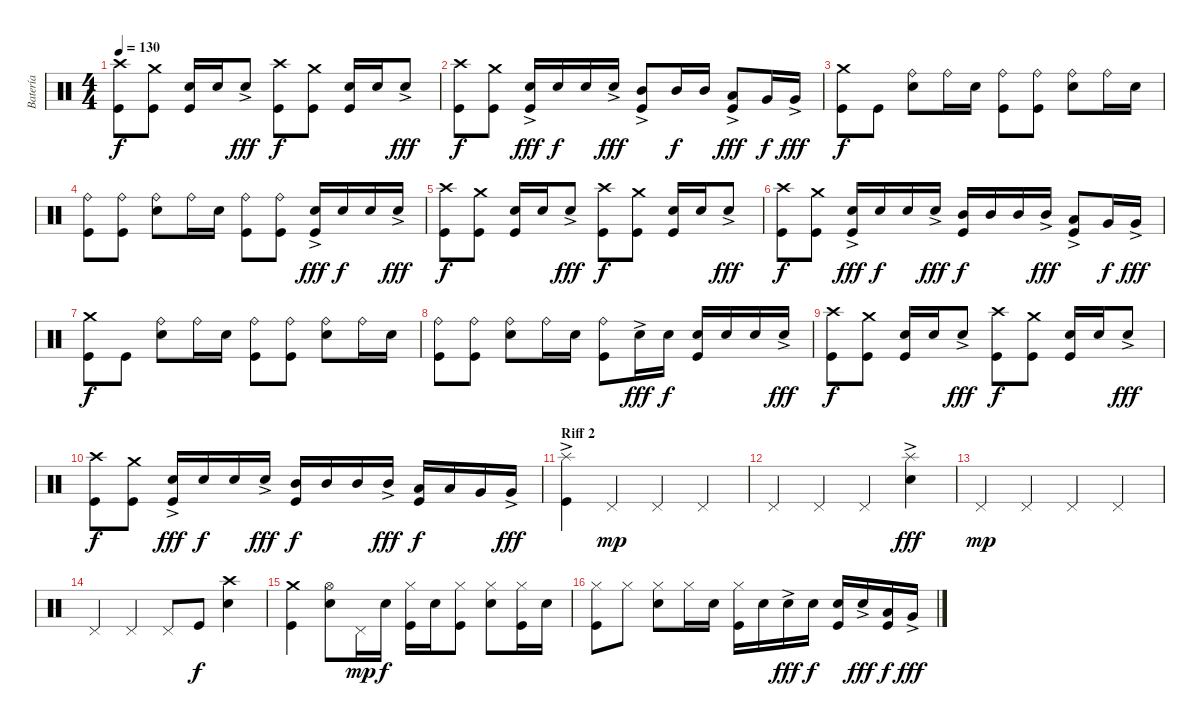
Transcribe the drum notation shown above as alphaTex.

\track ("Batería" "Batería") {instrument percussion}
\staff {score}
\articulation defaults
\ts (4 4)
\tempo 130
\clef neutral
\ks c
("Kick (hit)" "Crash high (hit)").8{dy f} ("Kick (hit)" "Crash medium (hit)").8 ("Kick (hit)" "Electric Snare (hit)").16 "Electric Snare (hit)".16 "Electric Snare (hit)"{ac}.8{dy fff} ("Kick (hit)" "Crash high (hit)").8{dy f} ("Kick (hit)" "Crash medium (hit)").8 ("Kick (hit)" "Electric Snare (hit)").16 "Electric Snare (hit)".16 "Electric Snare (hit)"{ac}.8{dy fff} |
("Kick (hit)" "Crash high (hit)").8{dy f} ("Kick (hit)" "Crash medium (hit)").8 ("Kick (hit)" "Electric Snare (hit)"{ac}).16{dy fff} "Electric Snare (hit)".16{dy f} "Electric Snare (hit)".16 "Electric Snare (hit)"{ac}.16{dy fff} ("Kick (hit)" "Mid Tom (hit)"{ac}).8 "Mid Tom (hit)".16{dy f} "Mid Tom (hit)".16 ("Kick (hit)" "Low Tom (hit)"{ac}).8{dy fff} "Very Low Tom (hit)".16{dy f} "Very Low Tom (hit)"{ac}.16{dy fff} |
("Kick (hit)" "Crash medium (hit)").8{dy f} "Kick (hit)".8 ("Electric Snare (hit)" "Ride (bell)").8 "Ride (bell)".16 "Electric Snare (hit)".16 ("Kick (hit)" "Ride (bell)").8 ("Kick (hit)" "Ride (bell)").8 ("Electric Snare (hit)" "Ride (bell)").8 "Ride (bell)".16 "Electric Snare (hit)".16 |
("Kick (hit)" "Ride (bell)").8 ("Kick (hit)" "Ride (bell)").8 ("Electric Snare (hit)" "Ride (bell)").8 "Ride (bell)".16 "Electric Snare (hit)".16 ("Kick (hit)" "Ride (bell)").8 ("Kick (hit)" "Ride (bell)").8 ("Kick (hit)" "Electric Snare (hit)"{ac}).16{dy fff} "Electric Snare (hit)".16{dy f} "Electric Snare (hit)".16 "Electric Snare (hit)"{ac}.16{dy fff} |
("Kick (hit)" "Crash high (hit)").8{dy f} ("Kick (hit)" "Crash medium (hit)").8 ("Kick (hit)" "Electric Snare (hit)").16 "Electric Snare (hit)".16 "Electric Snare (hit)"{ac}.8{dy fff} ("Kick (hit)" "Crash high (hit)").8{dy f} ("Kick (hit)" "Crash medium (hit)").8 ("Kick (hit)" "Electric Snare (hit)").16 "Electric Snare (hit)".16 "Electric Snare (hit)"{ac}.8{dy fff} |
("Kick (hit)" "Crash high (hit)").8{dy f} ("Kick (hit)" "Crash medium (hit)").8 ("Kick (hit)" "Electric Snare (hit)"{ac}).16{dy fff} "Electric Snare (hit)".16{dy f} "Electric Snare (hit)".16 "Electric Snare (hit)"{ac}.16{dy fff} ("Kick (hit)" "Mid Tom (hit)").16{dy f} "Mid Tom (hit)".16 "Mid Tom (hit)".16 "Mid Tom (hit)"{ac}.16{dy fff} ("Kick (hit)" "Low Tom (hit)"{ac}).8 "Very Low Tom (hit)".16{dy f} "Very Low Tom (hit)"{ac}.16{dy fff} |
("Kick (hit)" "Crash medium (hit)").8{dy f} "Kick (hit)".8 ("Electric Snare (hit)" "Ride (bell)").8 "Ride (bell)".16 "Electric Snare (hit)".16 ("Kick (hit)" "Ride (bell)").8 ("Kick (hit)" "Ride (bell)").8 ("Electric Snare (hit)" "Ride (bell)").8 "Ride (bell)".16 "Electric Snare (hit)".16 |
("Kick (hit)" "Ride (bell)").8 ("Kick (hit)" "Ride (bell)").8 ("Electric Snare (hit)" "Ride (bell)").8 "Ride (bell)".16 "Electric Snare (hit)".16 ("Kick (hit)" "Ride (bell)").8 "Electric Snare (hit)"{ac}.16{dy fff} "Electric Snare (hit)".16{dy f} ("Kick (hit)" "Electric Snare (hit)").16 "Electric Snare (hit)".16 "Electric Snare (hit)".16 "Electric Snare (hit)"{ac}.16{dy fff} |
("Kick (hit)" "Crash high (hit)").8{dy f} ("Kick (hit)" "Crash medium (hit)").8 ("Kick (hit)" "Electric Snare (hit)").16 "Electric Snare (hit)".16 "Electric Snare (hit)"{ac}.8{dy fff} ("Kick (hit)" "Crash high (hit)").8{dy f} ("Kick (hit)" "Crash medium (hit)").8 ("Kick (hit)" "Electric Snare (hit)").16 "Electric Snare (hit)".16 "Electric Snare (hit)"{ac}.8{dy fff} |
("Kick (hit)" "Crash high (hit)").8{dy f} ("Kick (hit)" "Crash medium (hit)").8 ("Kick (hit)" "Electric Snare (hit)"{ac}).16{dy fff} "Electric Snare (hit)".16{dy f} "Electric Snare (hit)".16 "Electric Snare (hit)"{ac}.16{dy fff} ("Kick (hit)" "Mid Tom (hit)").16{dy f} "Mid Tom (hit)".16 "Mid Tom (hit)".16 "Mid Tom (hit)"{ac}.16{dy fff} ("Kick (hit)" "Low Tom (hit)").16{dy f} "Low Tom (hit)".16 "Very Low Tom (hit)".16 "Very Low Tom (hit)"{ac}.16{dy fff} |
\section ("" "Riff 2")
("Kick (hit)" "Splash (hit)"{ac}).4 "Pedal Hi-Hat (hit)".4{dy mp} "Pedal Hi-Hat (hit)".4 "Pedal Hi-Hat (hit)".4 |
"Pedal Hi-Hat (hit)".4 "Pedal Hi-Hat (hit)".4 "Pedal Hi-Hat (hit)".4 ("Electric Snare (hit)" "Splash (hit)"{ac}).4{dy fff} |
"Pedal Hi-Hat (hit)".4{dy mp} "Pedal Hi-Hat (hit)".4 "Pedal Hi-Hat (hit)".4 "Pedal Hi-Hat (hit)".4 |
"Pedal Hi-Hat (hit)".4 "Pedal Hi-Hat (hit)".4 "Pedal Hi-Hat (hit)".8 "Kick (hit)".8{dy f} ("Electric Snare (hit)" "Crash high (hit)").4 |
("Kick (hit)" "Crash medium (hit)").4 ("Electric Snare (hit)" "Hi-Hat (open)").8 "Pedal Hi-Hat (hit)".16{dy mp} "Electric Snare (hit)".16{dy f} ("Kick (hit)" "Hi-Hat (closed)").16 "Electric Snare (hit)".16 ("Kick (hit)" "Hi-Hat (closed)").8 ("Electric Snare (hit)" "Hi-Hat (closed)").8 ("Kick (hit)" "Hi-Hat (closed)").16 "Electric Snare (hit)".16 |
("Kick (hit)" "Hi-Hat (closed)").8 "Hi-Hat (closed)".8 ("Electric Snare (hit)" "Hi-Hat (closed)").8 "Hi-Hat (closed)".16 "Electric Snare (hit)".16 ("Kick (hit)" "Hi-Hat (closed)").16 "Electric Snare (hit)".16 "Electric Snare (hit)"{ac}.16{dy fff} "Electric Snare (hit)".16{dy f} ("Kick (hit)" "Electric Snare (hit)").16 "Electric Snare (hit)"{ac}.16{dy fff} ("Kick (hit)" "Low Tom (hit)").16{dy f} "Very Low Tom (hit)"{ac}.16{dy fff}
